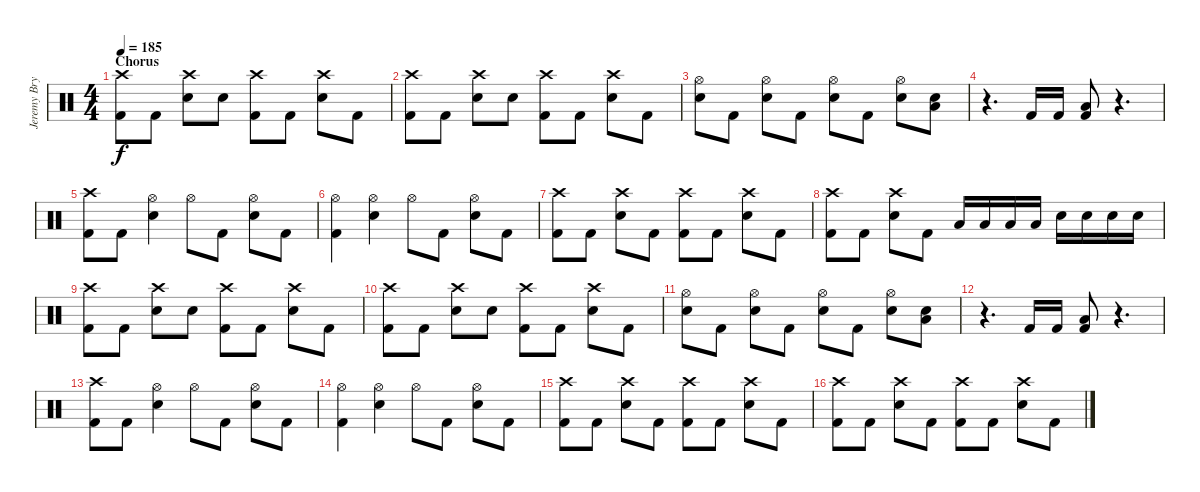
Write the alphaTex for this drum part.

\track ("Jeremy Bryan - Drums" "Jeremy Bry") {instrument percussion}
\staff {score}
\articulation defaults
\ts (4 4)
\section ("" "Chorus")
\tempo 185
\clef neutral
\ks c
("Crash high (hit)" "Kick (hit) 2").8{dy f} "Kick (hit) 2".8 ("Crash high (hit)" "Electric Snare (hit)").8 "Electric Snare (hit)".8 ("Crash high (hit)" "Kick (hit) 2").8 "Kick (hit) 2".8 ("Crash high (hit)" "Electric Snare (hit)").8 "Kick (hit) 2".8 |
("Crash high (hit)" "Kick (hit) 2").8 "Kick (hit) 2".8 ("Crash high (hit)" "Electric Snare (hit)").8 "Electric Snare (hit)".8 ("Crash high (hit)" "Kick (hit) 2").8 "Kick (hit) 2".8 ("Crash high (hit)" "Electric Snare (hit)").8 "Kick (hit) 2".8 |
("Hi-Hat (open)" "Electric Snare (hit)").8 "Kick (hit) 2".8 ("Hi-Hat (open)" "Electric Snare (hit)").8 "Kick (hit) 2".8 ("Hi-Hat (open)" "Electric Snare (hit)").8 "Kick (hit) 2".8 ("Hi-Hat (open)" "Electric Snare (hit)").8 ("Low Floor Tom (hit)" "Electric Snare (hit)").8 |
r.4{d} "Kick (hit) 2".16 "Kick (hit) 2".16 ("Low Floor Tom (hit)" "Kick (hit) 2").8 r.4{d} |
("Crash high (hit)" "Kick (hit) 2").8 "Kick (hit) 2".8 ("Hi-Hat (open)" "Electric Snare (hit)").4 "Hi-Hat (open)".8 "Kick (hit) 2".8 ("Hi-Hat (open)" "Electric Snare (hit)").8 "Kick (hit) 2".8 |
("Hi-Hat (open)" "Kick (hit) 2").4 ("Hi-Hat (open)" "Electric Snare (hit)").4 "Hi-Hat (open)".8 "Kick (hit) 2".8 ("Hi-Hat (open)" "Electric Snare (hit)").8 "Kick (hit) 2".8 |
("Crash high (hit)" "Kick (hit) 2").8 "Kick (hit) 2".8 ("Crash high (hit)" "Electric Snare (hit)").8 "Kick (hit) 2".8 ("Crash high (hit)" "Kick (hit) 2").8 "Kick (hit) 2".8 ("Crash high (hit)" "Electric Snare (hit)").8 "Kick (hit) 2".8 |
("Crash high (hit)" "Kick (hit) 2").8 "Kick (hit) 2".8 ("Crash high (hit)" "Electric Snare (hit)").8 "Kick (hit) 2".8 "Low Tom (hit)".16 "Low Tom (hit)".16 "Low Tom (hit)".16 "Low Tom (hit)".16 "Electric Snare (hit)".16 "Electric Snare (hit)".16 "Electric Snare (hit)".16 "Electric Snare (hit)".16 |
("Crash high (hit)" "Kick (hit) 2").8 "Kick (hit) 2".8 ("Crash high (hit)" "Electric Snare (hit)").8 "Electric Snare (hit)".8 ("Crash high (hit)" "Kick (hit) 2").8 "Kick (hit) 2".8 ("Crash high (hit)" "Electric Snare (hit)").8 "Kick (hit) 2".8 |
("Crash high (hit)" "Kick (hit) 2").8 "Kick (hit) 2".8 ("Crash high (hit)" "Electric Snare (hit)").8 "Electric Snare (hit)".8 ("Crash high (hit)" "Kick (hit) 2").8 "Kick (hit) 2".8 ("Crash high (hit)" "Electric Snare (hit)").8 "Kick (hit) 2".8 |
("Hi-Hat (open)" "Electric Snare (hit)").8 "Kick (hit) 2".8 ("Hi-Hat (open)" "Electric Snare (hit)").8 "Kick (hit) 2".8 ("Hi-Hat (open)" "Electric Snare (hit)").8 "Kick (hit) 2".8 ("Hi-Hat (open)" "Electric Snare (hit)").8 ("Low Floor Tom (hit)" "Electric Snare (hit)").8 |
r.4{d} "Kick (hit) 2".16 "Kick (hit) 2".16 ("Low Floor Tom (hit)" "Kick (hit) 2").8 r.4{d} |
("Crash high (hit)" "Kick (hit) 2").8 "Kick (hit) 2".8 ("Hi-Hat (open)" "Electric Snare (hit)").4 "Hi-Hat (open)".8 "Kick (hit) 2".8 ("Hi-Hat (open)" "Electric Snare (hit)").8 "Kick (hit) 2".8 |
("Hi-Hat (open)" "Kick (hit) 2").4 ("Hi-Hat (open)" "Electric Snare (hit)").4 "Hi-Hat (open)".8 "Kick (hit) 2".8 ("Hi-Hat (open)" "Electric Snare (hit)").8 "Kick (hit) 2".8 |
("Crash high (hit)" "Kick (hit) 2").8 "Kick (hit) 2".8 ("Crash high (hit)" "Electric Snare (hit)").8 "Kick (hit) 2".8 ("Crash high (hit)" "Kick (hit) 2").8 "Kick (hit) 2".8 ("Crash high (hit)" "Electric Snare (hit)").8 "Kick (hit) 2".8 |
("Crash high (hit)" "Kick (hit) 2").8 "Kick (hit) 2".8 ("Crash high (hit)" "Electric Snare (hit)").8 "Kick (hit) 2".8 ("Crash high (hit)" "Kick (hit) 2").8 "Kick (hit) 2".8 ("Crash high (hit)" "Electric Snare (hit)").8 "Kick (hit) 2".8
